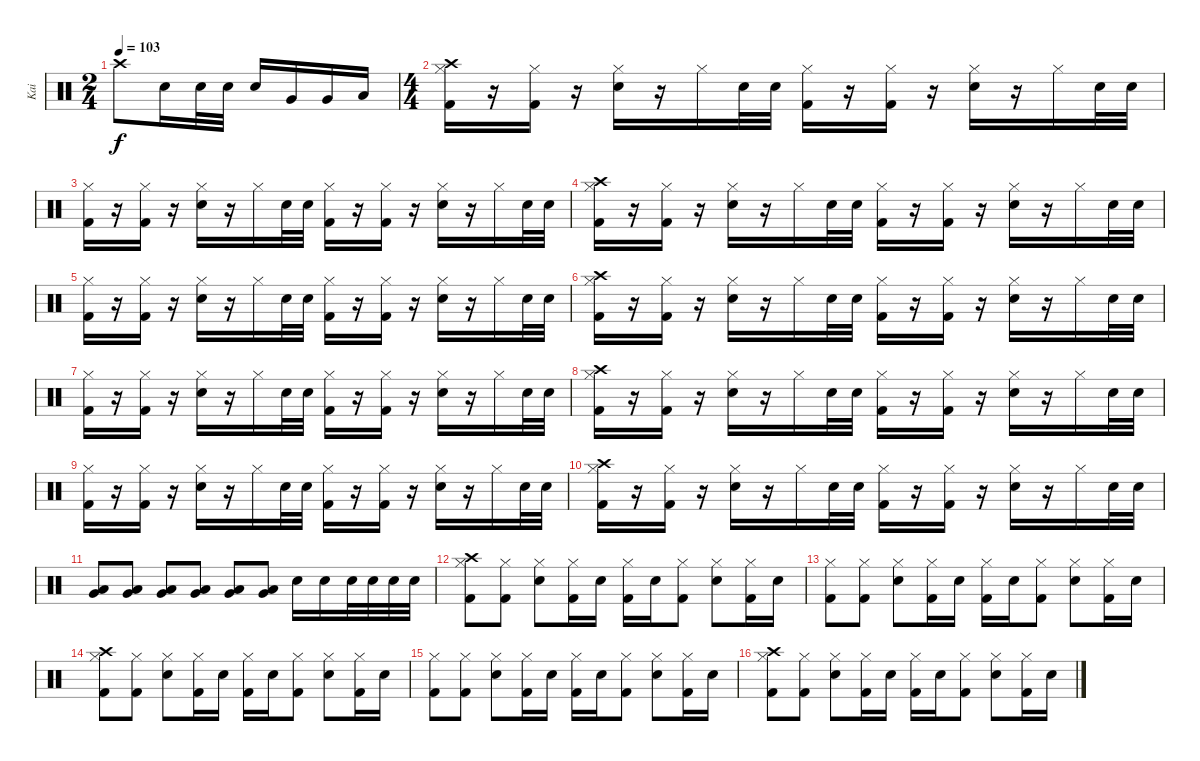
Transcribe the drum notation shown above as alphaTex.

\track ("Kai" "Kai") {instrument percussion}
\staff {score}
\articulation defaults
\ts (2 4)
\tempo 103
\clef neutral
\ks c "Crash high (hit)".8{dy f} "Snare (hit) 2".16 "Snare (hit) 2".32 "Snare (hit) 2".32 "Snare (hit) 2".16 "Very Low Tom (hit)".16 "Very Low Tom (hit)".16 "Low Floor Tom (hit)".16
|
\ts (4 4)
("Crash high (hit)" "Hi-Hat (closed)" "Kick (hit) 2").16 r.16 ("Hi-Hat (closed)" "Kick (hit) 2").16 r.16 ("Hi-Hat (closed)" "Electric Snare (hit)").16 r.16 "Hi-Hat (closed)".16 "Electric Snare (hit)".32 "Electric Snare (hit)".32 ("Hi-Hat (closed)" "Kick (hit) 2").16 r.16 ("Hi-Hat (closed)" "Kick (hit) 2").16 r.16 ("Hi-Hat (closed)" "Electric Snare (hit)").16 r.16 "Hi-Hat (closed)".16 "Electric Snare (hit)".32 "Electric Snare (hit)".32 |
("Hi-Hat (closed)" "Kick (hit) 2").16 r.16 ("Hi-Hat (closed)" "Kick (hit) 2").16 r.16 ("Hi-Hat (closed)" "Electric Snare (hit)").16 r.16 "Hi-Hat (closed)".16 "Electric Snare (hit)".32 "Electric Snare (hit)".32 ("Hi-Hat (closed)" "Kick (hit) 2").16 r.16 ("Hi-Hat (closed)" "Kick (hit) 2").16 r.16 ("Hi-Hat (closed)" "Electric Snare (hit)").16 r.16 "Hi-Hat (closed)".16 "Electric Snare (hit)".32 "Electric Snare (hit)".32 |
("Crash high (hit)" "Hi-Hat (closed)" "Kick (hit) 2").16 r.16 ("Hi-Hat (closed)" "Kick (hit) 2").16 r.16 ("Hi-Hat (closed)" "Electric Snare (hit)").16 r.16 "Hi-Hat (closed)".16 "Electric Snare (hit)".32 "Electric Snare (hit)".32 ("Hi-Hat (closed)" "Kick (hit) 2").16 r.16 ("Hi-Hat (closed)" "Kick (hit) 2").16 r.16 ("Hi-Hat (closed)" "Electric Snare (hit)").16 r.16 "Hi-Hat (closed)".16 "Electric Snare (hit)".32 "Electric Snare (hit)".32 |
("Hi-Hat (closed)" "Kick (hit) 2").16 r.16 ("Hi-Hat (closed)" "Kick (hit) 2").16 r.16 ("Hi-Hat (closed)" "Electric Snare (hit)").16 r.16 "Hi-Hat (closed)".16 "Electric Snare (hit)".32 "Electric Snare (hit)".32 ("Hi-Hat (closed)" "Kick (hit) 2").16 r.16 ("Hi-Hat (closed)" "Kick (hit) 2").16 r.16 ("Hi-Hat (closed)" "Electric Snare (hit)").16 r.16 "Hi-Hat (closed)".16 "Electric Snare (hit)".32 "Electric Snare (hit)".32 |
("Crash high (hit)" "Hi-Hat (closed)" "Kick (hit) 2").16 r.16 ("Hi-Hat (closed)" "Kick (hit) 2").16 r.16 ("Hi-Hat (closed)" "Electric Snare (hit)").16 r.16 "Hi-Hat (closed)".16 "Electric Snare (hit)".32 "Electric Snare (hit)".32 ("Hi-Hat (closed)" "Kick (hit) 2").16 r.16 ("Hi-Hat (closed)" "Kick (hit) 2").16 r.16 ("Hi-Hat (closed)" "Electric Snare (hit)").16 r.16 "Hi-Hat (closed)".16 "Electric Snare (hit)".32 "Electric Snare (hit)".32 |
("Hi-Hat (closed)" "Kick (hit) 2").16 r.16 ("Hi-Hat (closed)" "Kick (hit) 2").16 r.16 ("Hi-Hat (closed)" "Electric Snare (hit)").16 r.16 "Hi-Hat (closed)".16 "Electric Snare (hit)".32 "Electric Snare (hit)".32 ("Hi-Hat (closed)" "Kick (hit) 2").16 r.16 ("Hi-Hat (closed)" "Kick (hit) 2").16 r.16 ("Hi-Hat (closed)" "Electric Snare (hit)").16 r.16 "Hi-Hat (closed)".16 "Electric Snare (hit)".32 "Electric Snare (hit)".32 |
("Crash high (hit)" "Hi-Hat (closed)" "Kick (hit) 2").16 r.16 ("Hi-Hat (closed)" "Kick (hit) 2").16 r.16 ("Hi-Hat (closed)" "Electric Snare (hit)").16 r.16 "Hi-Hat (closed)".16 "Electric Snare (hit)".32 "Electric Snare (hit)".32 ("Hi-Hat (closed)" "Kick (hit) 2").16 r.16 ("Hi-Hat (closed)" "Kick (hit) 2").16 r.16 ("Hi-Hat (closed)" "Electric Snare (hit)").16 r.16 "Hi-Hat (closed)".16 "Electric Snare (hit)".32 "Electric Snare (hit)".32 |
("Hi-Hat (closed)" "Kick (hit) 2").16 r.16 ("Hi-Hat (closed)" "Kick (hit) 2").16 r.16 ("Hi-Hat (closed)" "Electric Snare (hit)").16 r.16 "Hi-Hat (closed)".16 "Electric Snare (hit)".32 "Electric Snare (hit)".32 ("Hi-Hat (closed)" "Kick (hit) 2").16 r.16 ("Hi-Hat (closed)" "Kick (hit) 2").16 r.16 ("Hi-Hat (closed)" "Electric Snare (hit)").16 r.16 "Hi-Hat (closed)".16 "Electric Snare (hit)".32 "Electric Snare (hit)".32 |
("Crash high (hit)" "Hi-Hat (closed)" "Kick (hit) 2").16 r.16 ("Hi-Hat (closed)" "Kick (hit) 2").16 r.16 ("Hi-Hat (closed)" "Electric Snare (hit)").16 r.16 "Hi-Hat (closed)".16 "Electric Snare (hit)".32 "Electric Snare (hit)".32 ("Hi-Hat (closed)" "Kick (hit) 2").16 r.16 ("Hi-Hat (closed)" "Kick (hit) 2").16 r.16 ("Hi-Hat (closed)" "Electric Snare (hit)").16 r.16 "Hi-Hat (closed)".16 "Electric Snare (hit)".32 "Electric Snare (hit)".32 |
("Low Floor Tom (hit)" "Very Low Tom (hit)").8 ("Low Floor Tom (hit)" "Very Low Tom (hit)").8 ("Low Floor Tom (hit)" "Very Low Tom (hit)").8 ("Low Floor Tom (hit)" "Very Low Tom (hit)").8 ("Low Floor Tom (hit)" "Very Low Tom (hit)").8 ("Low Floor Tom (hit)" "Very Low Tom (hit)").8 "Electric Snare (hit)".16 "Electric Snare (hit)".16 "Electric Snare (hit)".32 "Electric Snare (hit)".32 "Electric Snare (hit)".32 "Electric Snare (hit)".32 |
("Crash high (hit)" "Hi-Hat (closed)" "Kick (hit) 2").8 ("Hi-Hat (closed)" "Kick (hit) 2").8 ("Hi-Hat (closed)" "Electric Snare (hit)").8 ("Hi-Hat (closed)" "Kick (hit) 2").16 "Electric Snare (hit)".16 ("Hi-Hat (closed)" "Kick (hit) 2").16 "Electric Snare (hit)".16 ("Hi-Hat (closed)" "Kick (hit) 2").8 ("Hi-Hat (closed)" "Electric Snare (hit)").8 ("Hi-Hat (closed)" "Kick (hit) 2").16 "Electric Snare (hit)".16 |
("Hi-Hat (closed)" "Kick (hit) 2").8 ("Hi-Hat (closed)" "Kick (hit) 2").8 ("Hi-Hat (closed)" "Electric Snare (hit)").8 ("Hi-Hat (closed)" "Kick (hit) 2").16 "Electric Snare (hit)".16 ("Hi-Hat (closed)" "Kick (hit) 2").16 "Electric Snare (hit)".16 ("Hi-Hat (closed)" "Kick (hit) 2").8 ("Hi-Hat (closed)" "Electric Snare (hit)").8 ("Hi-Hat (closed)" "Kick (hit) 2").16 "Electric Snare (hit)".16 |
("Crash high (hit)" "Hi-Hat (closed)" "Kick (hit) 2").8 ("Hi-Hat (closed)" "Kick (hit) 2").8 ("Hi-Hat (closed)" "Electric Snare (hit)").8 ("Hi-Hat (closed)" "Kick (hit) 2").16 "Electric Snare (hit)".16 ("Hi-Hat (closed)" "Kick (hit) 2").16 "Electric Snare (hit)".16 ("Hi-Hat (closed)" "Kick (hit) 2").8 ("Hi-Hat (closed)" "Electric Snare (hit)").8 ("Hi-Hat (closed)" "Kick (hit) 2").16 "Electric Snare (hit)".16 |
("Hi-Hat (closed)" "Kick (hit) 2").8 ("Hi-Hat (closed)" "Kick (hit) 2").8 ("Hi-Hat (closed)" "Electric Snare (hit)").8 ("Hi-Hat (closed)" "Kick (hit) 2").16 "Electric Snare (hit)".16 ("Hi-Hat (closed)" "Kick (hit) 2").16 "Electric Snare (hit)".16 ("Hi-Hat (closed)" "Kick (hit) 2").8 ("Hi-Hat (closed)" "Electric Snare (hit)").8 ("Hi-Hat (closed)" "Kick (hit) 2").16 "Electric Snare (hit)".16 |
("Crash high (hit)" "Hi-Hat (closed)" "Kick (hit) 2").8 ("Hi-Hat (closed)" "Kick (hit) 2").8 ("Hi-Hat (closed)" "Electric Snare (hit)").8 ("Hi-Hat (closed)" "Kick (hit) 2").16 "Electric Snare (hit)".16 ("Hi-Hat (closed)" "Kick (hit) 2").16 "Electric Snare (hit)".16 ("Hi-Hat (closed)" "Kick (hit) 2").8 ("Hi-Hat (closed)" "Electric Snare (hit)").8 ("Hi-Hat (closed)" "Kick (hit) 2").16 "Electric Snare (hit)".16
